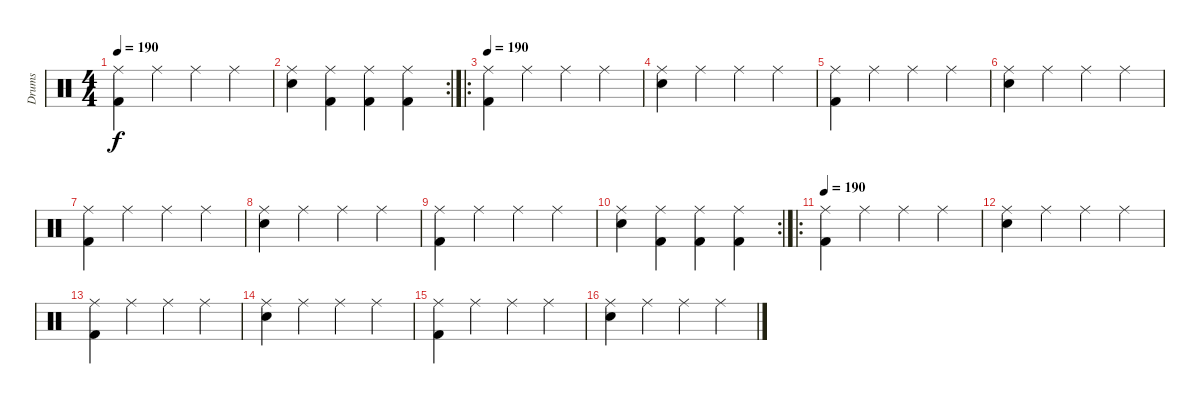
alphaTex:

\track ("Drums" "Drums") {instrument percussion}
\staff {score}
\articulation defaults
\ts (4 4)
\tempo 190
\clef neutral
\ks c
("Ride (middle)" "Kick (hit) 2").4{dy f} "Ride (middle)".4 "Ride (middle)".4 "Ride (middle)".4 |
\rc 2
("Ride (middle)" "Electric Snare (hit)").4 ("Ride (middle)" "Kick (hit) 2").4 ("Ride (middle)" "Kick (hit) 2").4 ("Ride (middle)" "Kick (hit) 2").4 |
\ro
\tempo 190
("Ride (middle)" "Kick (hit) 2").4 "Ride (middle)".4 "Ride (middle)".4 "Ride (middle)".4 |
("Ride (middle)" "Electric Snare (hit)").4 "Ride (middle)".4 "Ride (middle)".4 "Ride (middle)".4 |
("Ride (middle)" "Kick (hit) 2").4 "Ride (middle)".4 "Ride (middle)".4 "Ride (middle)".4 |
("Ride (middle)" "Electric Snare (hit)").4 "Ride (middle)".4 "Ride (middle)".4 "Ride (middle)".4 |
("Ride (middle)" "Kick (hit) 2").4 "Ride (middle)".4 "Ride (middle)".4 "Ride (middle)".4 |
("Ride (middle)" "Electric Snare (hit)").4 "Ride (middle)".4 "Ride (middle)".4 "Ride (middle)".4 |
("Ride (middle)" "Kick (hit) 2").4 "Ride (middle)".4 "Ride (middle)".4 "Ride (middle)".4 |
\rc 2
("Ride (middle)" "Electric Snare (hit)").4 ("Ride (middle)" "Kick (hit) 2").4 ("Ride (middle)" "Kick (hit) 2").4 ("Ride (middle)" "Kick (hit) 2").4 |
\ro
\tempo 190
("Ride (middle)" "Kick (hit) 2").4 "Ride (middle)".4 "Ride (middle)".4 "Ride (middle)".4 |
("Ride (middle)" "Electric Snare (hit)").4 "Ride (middle)".4 "Ride (middle)".4 "Ride (middle)".4 |
("Ride (middle)" "Kick (hit) 2").4 "Ride (middle)".4 "Ride (middle)".4 "Ride (middle)".4 |
("Ride (middle)" "Electric Snare (hit)").4 "Ride (middle)".4 "Ride (middle)".4 "Ride (middle)".4 |
("Ride (middle)" "Kick (hit) 2").4 "Ride (middle)".4 "Ride (middle)".4 "Ride (middle)".4 |
("Ride (middle)" "Electric Snare (hit)").4 "Ride (middle)".4 "Ride (middle)".4 "Ride (middle)".4
